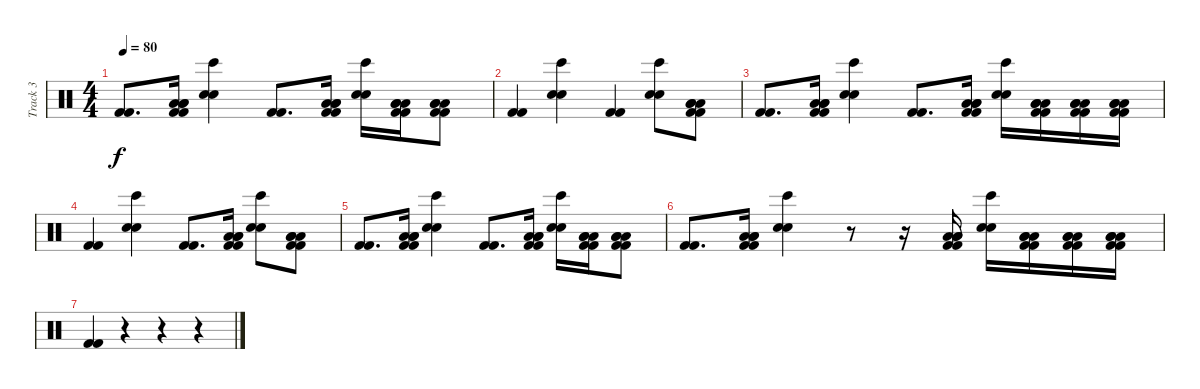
\track ("Track 3" "Track 3") {instrument percussion}
\staff {score}
\articulation defaults
\ts (4 4)
\tempo 80
\clef neutral
\ks c
("Kick (hit) 2" "Kick (hit) 2").8{d dy f} ("Kick (hit) 2" "Kick (hit) 2" "Low Floor Tom (hit)" "Low Floor Tom (hit)" "Low Floor Tom (hit)").16 ("Hand Clap (hit)" "Hand Clap (hit)" "Bongo High (hit)").4 ("Kick (hit) 2" "Kick (hit) 2").8{d} ("Kick (hit) 2" "Kick (hit) 2" "Low Floor Tom (hit)" "Low Floor Tom (hit)" "Low Floor Tom (hit)").16 ("Hand Clap (hit)" "Hand Clap (hit)" "Bongo High (hit)").16 ("Kick (hit) 2" "Kick (hit) 2" "Low Floor Tom (hit)" "Low Floor Tom (hit)" "Low Floor Tom (hit)").16 ("Kick (hit) 2" "Kick (hit) 2" "Low Floor Tom (hit)" "Low Floor Tom (hit)" "Low Floor Tom (hit)").8 |
("Kick (hit) 2" "Kick (hit) 2").4 ("Hand Clap (hit)" "Hand Clap (hit)" "Bongo High (hit)").4 ("Kick (hit) 2" "Kick (hit) 2").4 ("Hand Clap (hit)" "Hand Clap (hit)" "Bongo High (hit)").8 ("Kick (hit) 2" "Kick (hit) 2" "Low Floor Tom (hit)" "Low Floor Tom (hit)" "Low Floor Tom (hit)").8 |
("Kick (hit) 2" "Kick (hit) 2").8{d} ("Kick (hit) 2" "Kick (hit) 2" "Low Floor Tom (hit)" "Low Floor Tom (hit)" "Low Floor Tom (hit)").16 ("Hand Clap (hit)" "Hand Clap (hit)" "Bongo High (hit)").4 ("Kick (hit) 2" "Kick (hit) 2").8{d} ("Kick (hit) 2" "Kick (hit) 2" "Low Floor Tom (hit)" "Low Floor Tom (hit)" "Low Floor Tom (hit)").16 ("Hand Clap (hit)" "Hand Clap (hit)" "Bongo High (hit)").16 ("Kick (hit) 2" "Kick (hit) 2" "Low Floor Tom (hit)" "Low Floor Tom (hit)" "Low Floor Tom (hit)").16 ("Kick (hit) 2" "Kick (hit) 2" "Low Floor Tom (hit)" "Low Floor Tom (hit)" "Low Floor Tom (hit)").16 ("Kick (hit) 2" "Kick (hit) 2" "Low Floor Tom (hit)" "Low Floor Tom (hit)" "Low Floor Tom (hit)").16 |
("Kick (hit) 2" "Kick (hit) 2").4 ("Hand Clap (hit)" "Hand Clap (hit)" "Bongo High (hit)").4 ("Kick (hit) 2" "Kick (hit) 2").8{d} ("Kick (hit) 2" "Kick (hit) 2" "Low Floor Tom (hit)" "Low Floor Tom (hit)" "Low Floor Tom (hit)").16 ("Hand Clap (hit)" "Hand Clap (hit)" "Bongo High (hit)").8 ("Kick (hit) 2" "Kick (hit) 2" "Low Floor Tom (hit)" "Low Floor Tom (hit)" "Low Floor Tom (hit)").8 |
("Kick (hit) 2" "Kick (hit) 2").8{d} ("Kick (hit) 2" "Kick (hit) 2" "Low Floor Tom (hit)" "Low Floor Tom (hit)" "Low Floor Tom (hit)").16 ("Hand Clap (hit)" "Hand Clap (hit)" "Bongo High (hit)").4 ("Kick (hit) 2" "Kick (hit) 2").8{d} ("Kick (hit) 2" "Kick (hit) 2" "Low Floor Tom (hit)" "Low Floor Tom (hit)" "Low Floor Tom (hit)").16 ("Hand Clap (hit)" "Hand Clap (hit)" "Bongo High (hit)").16 ("Kick (hit) 2" "Kick (hit) 2" "Low Floor Tom (hit)" "Low Floor Tom (hit)" "Low Floor Tom (hit)").16 ("Kick (hit) 2" "Kick (hit) 2" "Low Floor Tom (hit)" "Low Floor Tom (hit)" "Low Floor Tom (hit)").8 |
("Kick (hit) 2" "Kick (hit) 2").8{d} ("Kick (hit) 2" "Kick (hit) 2" "Low Floor Tom (hit)" "Low Floor Tom (hit)" "Low Floor Tom (hit)").16 ("Hand Clap (hit)" "Hand Clap (hit)" "Bongo High (hit)").4 r.8 r.16 ("Kick (hit) 2" "Kick (hit) 2" "Low Floor Tom (hit)" "Low Floor Tom (hit)" "Low Floor Tom (hit)").16 ("Hand Clap (hit)" "Hand Clap (hit)" "Bongo High (hit)").16 ("Kick (hit) 2" "Kick (hit) 2" "Low Floor Tom (hit)" "Low Floor Tom (hit)" "Low Floor Tom (hit)").16 ("Kick (hit) 2" "Kick (hit) 2" "Low Floor Tom (hit)" "Low Floor Tom (hit)" "Low Floor Tom (hit)").16 ("Kick (hit) 2" "Kick (hit) 2" "Low Floor Tom (hit)" "Low Floor Tom (hit)" "Low Floor Tom (hit)").16 |
("Kick (hit) 2" "Kick (hit) 2").4 r.4 r.4 r.4
